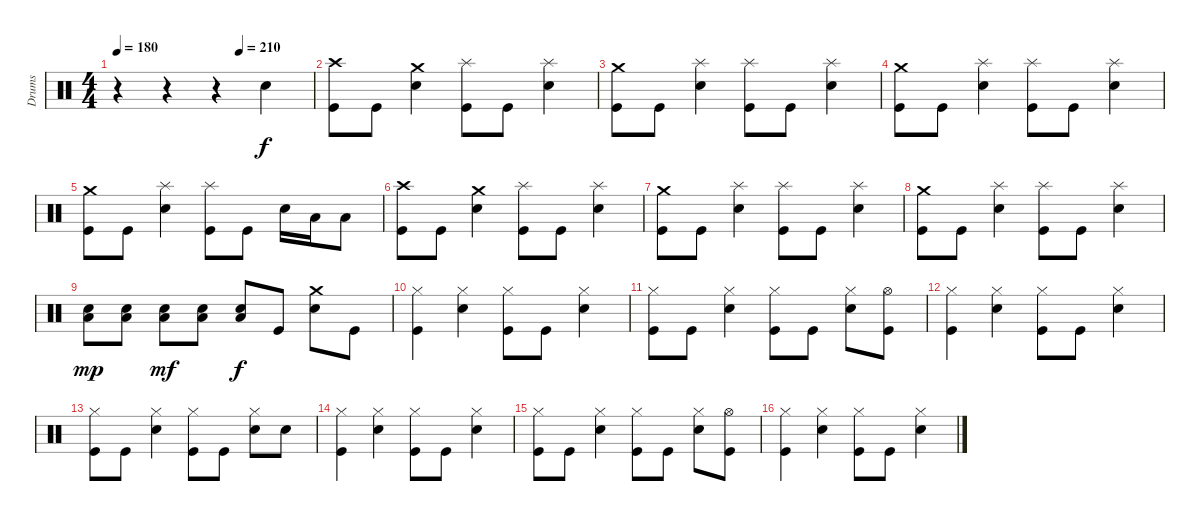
\track ("Drums" "Drums") {instrument percussion}
\staff {score}
\articulation defaults
\ts (4 4)
\tempo 180
\tempo (210 0.625)
\clef neutral
\ks c
r.4{dy f} r.4 r.4 "Electric Snare (hit)".4 |
("Crash high (hit)" "Kick (hit)").8 "Kick (hit)".8 ("Crash medium (hit)" "Electric Snare (hit)").4 ("Splash (hit)" "Kick (hit)").8 "Kick (hit)".8 ("Splash (hit)" "Electric Snare (hit)").4 |
("Crash medium (hit)" "Kick (hit)").8 "Kick (hit)".8 ("Splash (hit)" "Electric Snare (hit)").4 ("Splash (hit)" "Kick (hit)").8 "Kick (hit)".8 ("Splash (hit)" "Electric Snare (hit)").4 |
("Crash medium (hit)" "Kick (hit)").8 "Kick (hit)".8 ("Splash (hit)" "Electric Snare (hit)").4 ("Splash (hit)" "Kick (hit)").8 "Kick (hit)".8 ("Splash (hit)" "Electric Snare (hit)").4 |
("Crash medium (hit)" "Kick (hit)").8 "Kick (hit)".8 ("Splash (hit)" "Electric Snare (hit)").4 ("Splash (hit)" "Kick (hit)").8 "Kick (hit)".8 "Electric Snare (hit)".16 "Low Tom (hit)".16 "Low Tom (hit)".8 |
("Crash high (hit)" "Kick (hit)").8 "Kick (hit)".8 ("Crash medium (hit)" "Electric Snare (hit)").4 ("Splash (hit)" "Kick (hit)").8 "Kick (hit)".8 ("Splash (hit)" "Electric Snare (hit)").4 |
("Crash medium (hit)" "Kick (hit)").8 "Kick (hit)".8 ("Splash (hit)" "Electric Snare (hit)").4 ("Splash (hit)" "Kick (hit)").8 "Kick (hit)".8 ("Splash (hit)" "Electric Snare (hit)").4 |
("Crash medium (hit)" "Kick (hit)").8 "Kick (hit)".8 ("Splash (hit)" "Electric Snare (hit)").4 ("Splash (hit)" "Kick (hit)").8 "Kick (hit)".8 ("Splash (hit)" "Electric Snare (hit)").4 |
("Low Floor Tom (hit)" "Electric Snare (hit)").8{dy mp} ("Low Floor Tom (hit)" "Electric Snare (hit)").8 ("Low Floor Tom (hit)" "Electric Snare (hit)").8{dy mf} ("Low Floor Tom (hit)" "Electric Snare (hit)").8 ("Low Floor Tom (hit)" "Electric Snare (hit)").8{dy f} "Kick (hit)".8 ("Crash medium (hit)" "Electric Snare (hit)").8 "Kick (hit)".8 |
("Hi-Hat (closed)" "Kick (hit)").4 ("Hi-Hat (closed)" "Electric Snare (hit)").4 ("Hi-Hat (closed)" "Kick (hit)").8 "Kick (hit)".8 ("Hi-Hat (closed)" "Electric Snare (hit)").4 |
("Hi-Hat (closed)" "Kick (hit)").8 "Kick (hit)".8 ("Hi-Hat (closed)" "Electric Snare (hit)").4 ("Hi-Hat (closed)" "Kick (hit)").8 "Kick (hit)".8 ("Hi-Hat (closed)" "Electric Snare (hit)").8 ("Hi-Hat (open)" "Kick (hit)").8 |
("Hi-Hat (closed)" "Kick (hit)").4 ("Hi-Hat (closed)" "Electric Snare (hit)").4 ("Hi-Hat (closed)" "Kick (hit)").8 "Kick (hit)".8 ("Hi-Hat (closed)" "Electric Snare (hit)").4 |
("Hi-Hat (closed)" "Kick (hit)").8 "Kick (hit)".8 ("Hi-Hat (closed)" "Electric Snare (hit)").4 ("Hi-Hat (closed)" "Kick (hit)").8 "Kick (hit)".8 ("Hi-Hat (closed)" "Electric Snare (hit)").8 "Electric Snare (hit)".8 |
("Hi-Hat (closed)" "Kick (hit)").4 ("Hi-Hat (closed)" "Electric Snare (hit)").4 ("Hi-Hat (closed)" "Kick (hit)").8 "Kick (hit)".8 ("Hi-Hat (closed)" "Electric Snare (hit)").4 |
("Hi-Hat (closed)" "Kick (hit)").8 "Kick (hit)".8 ("Hi-Hat (closed)" "Electric Snare (hit)").4 ("Hi-Hat (closed)" "Kick (hit)").8 "Kick (hit)".8 ("Hi-Hat (closed)" "Electric Snare (hit)").8 ("Hi-Hat (open)" "Kick (hit)").8 |
("Hi-Hat (closed)" "Kick (hit)").4 ("Hi-Hat (closed)" "Electric Snare (hit)").4 ("Hi-Hat (closed)" "Kick (hit)").8 "Kick (hit)".8 ("Hi-Hat (closed)" "Electric Snare (hit)").4
